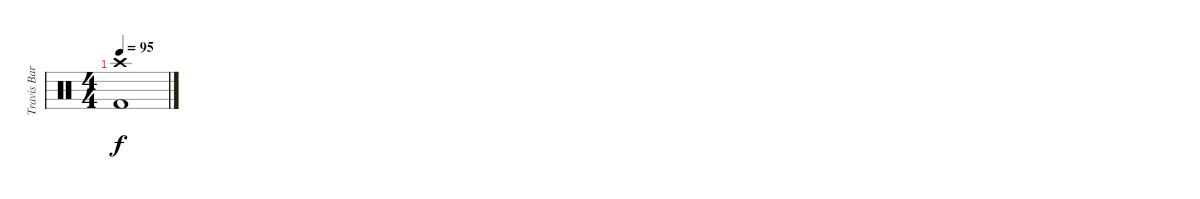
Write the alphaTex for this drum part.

\track ("Travis Barker - Drums" "Travis Bar") {instrument percussion}
\staff {score}
\articulation defaults
\ts (4 4)
\tempo 95
\clef neutral
\ks c
("Crash high (hit)" "Kick (hit) 2").1{dy f}
